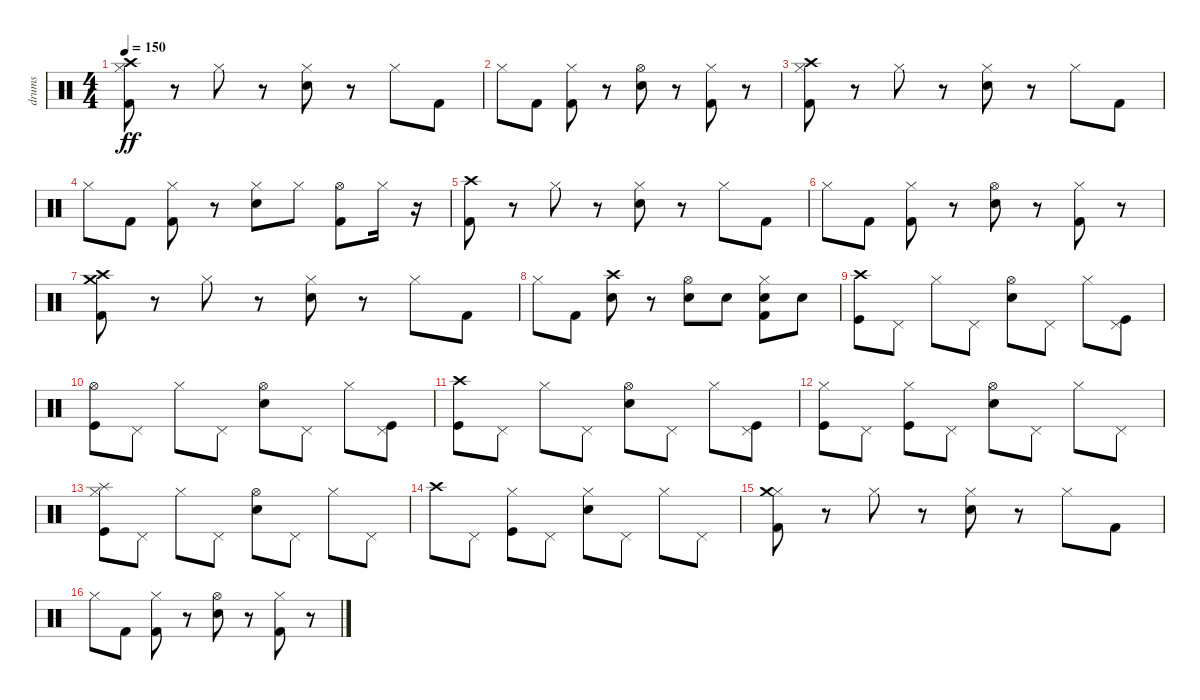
\track ("drums" "drums") {instrument percussion}
\staff {score}
\articulation defaults
\ts (4 4)
\tempo 150
\clef neutral
\ks c
("Hi-Hat (closed)" "Kick (hit) 2" "Crash high (hit)").8{dy ff} r.8 "Hi-Hat (closed)".8 r.8 ("Hi-Hat (closed)" "Electric Snare (hit)").8 r.8 "Hi-Hat (closed)".8 "Kick (hit) 2".8 |
"Hi-Hat (closed)".8 "Kick (hit) 2".8 ("Hi-Hat (closed)" "Kick (hit) 2").8 r.8 ("Hi-Hat (open)" "Electric Snare (hit)").8 r.8 ("Kick (hit) 2" "Hi-Hat (closed)").8 r.8 |
("Hi-Hat (closed)" "Kick (hit) 2" "Crash high (hit)").8 r.8 "Hi-Hat (closed)".8 r.8 ("Hi-Hat (closed)" "Electric Snare (hit)").8 r.8 "Hi-Hat (closed)".8 "Kick (hit) 2".8 |
"Hi-Hat (closed)".8 "Kick (hit) 2".8 ("Hi-Hat (closed)" "Kick (hit) 2").8 r.8 ("Hi-Hat (closed)" "Electric Snare (hit)").8 "Hi-Hat (closed)".8 ("Kick (hit) 2" "Hi-Hat (open)").8 "Hi-Hat (closed)".16 r.16 |
("Kick (hit) 2" "Crash high (hit)").8 r.8 "Hi-Hat (closed)".8 r.8 ("Hi-Hat (closed)" "Electric Snare (hit)").8 r.8 "Hi-Hat (closed)".8 "Kick (hit) 2".8 |
"Hi-Hat (closed)".8 "Kick (hit) 2".8 ("Hi-Hat (closed)" "Kick (hit) 2").8 r.8 ("Hi-Hat (open)" "Electric Snare (hit)").8 r.8 ("Kick (hit) 2" "Hi-Hat (closed)").8 r.8 |
("Crash high (hit)" "Kick (hit) 2" "Crash medium (hit)").8 r.8 "Hi-Hat (closed)".8 r.8 ("Hi-Hat (closed)" "Electric Snare (hit)").8 r.8 "Hi-Hat (closed)".8 "Kick (hit) 2".8 |
"Hi-Hat (closed)".8 "Kick (hit) 2".8 ("Crash high (hit)" "Electric Snare (hit)").8 r.8 ("Hi-Hat (open)" "Electric Snare (hit)").8 "Snare (hit) 2".8 ("Snare (hit) 2" "Kick (hit) 2" "Hi-Hat (closed)").8 "Snare (hit) 2".8 |
("Crash high (hit)" "Kick (hit)").8 "Pedal Hi-Hat (hit)".8 "Hi-Hat (closed)".8 "Pedal Hi-Hat (hit)".8 ("Hi-Hat (open)" "Electric Snare (hit)").8 "Pedal Hi-Hat (hit)".8 "Hi-Hat (closed)".8 ("Pedal Hi-Hat (hit)" "Kick (hit)").8 |
("Hi-Hat (open)" "Kick (hit)").8 "Pedal Hi-Hat (hit)".8 "Hi-Hat (closed)".8 "Pedal Hi-Hat (hit)".8 ("Hi-Hat (open)" "Electric Snare (hit)").8 "Pedal Hi-Hat (hit)".8 "Hi-Hat (closed)".8 ("Pedal Hi-Hat (hit)" "Kick (hit)").8 |
("Crash high (hit)" "Kick (hit)").8 "Pedal Hi-Hat (hit)".8 "Hi-Hat (closed)".8 "Pedal Hi-Hat (hit)".8 ("Hi-Hat (open)" "Electric Snare (hit)").8 "Pedal Hi-Hat (hit)".8 "Hi-Hat (closed)".8 ("Pedal Hi-Hat (hit)" "Kick (hit)").8 |
("Hi-Hat (closed)" "Kick (hit)").8 "Pedal Hi-Hat (hit)".8 ("Hi-Hat (closed)" "Kick (hit)").8 "Pedal Hi-Hat (hit)".8 ("Hi-Hat (open)" "Electric Snare (hit)").8 "Pedal Hi-Hat (hit)".8 "Hi-Hat (closed)".8 "Pedal Hi-Hat (hit)".8 |
("Hi-Hat (closed)" "Splash (hit)" "Kick (hit)").8 "Pedal Hi-Hat (hit)".8 "Hi-Hat (closed)".8 "Pedal Hi-Hat (hit)".8 ("Hi-Hat (open)" "Electric Snare (hit)").8 "Pedal Hi-Hat (hit)".8 "Hi-Hat (closed)".8 "Pedal Hi-Hat (hit)".8 |
"Crash high (hit)".8 "Pedal Hi-Hat (hit)".8 ("Hi-Hat (closed)" "Kick (hit)").8 "Pedal Hi-Hat (hit)".8 ("Hi-Hat (closed)" "Electric Snare (hit)").8 "Pedal Hi-Hat (hit)".8 "Hi-Hat (closed)".8 "Pedal Hi-Hat (hit)".8 |
("Hi-Hat (closed)" "Kick (hit) 2" "Crash medium (hit)").8 r.8 "Hi-Hat (closed)".8 r.8 ("Hi-Hat (closed)" "Electric Snare (hit)").8 r.8 "Hi-Hat (closed)".8 "Kick (hit) 2".8 |
"Hi-Hat (closed)".8 "Kick (hit) 2".8 ("Hi-Hat (closed)" "Kick (hit) 2").8 r.8 ("Hi-Hat (open)" "Electric Snare (hit)").8 r.8 ("Kick (hit) 2" "Hi-Hat (closed)").8 r.8
